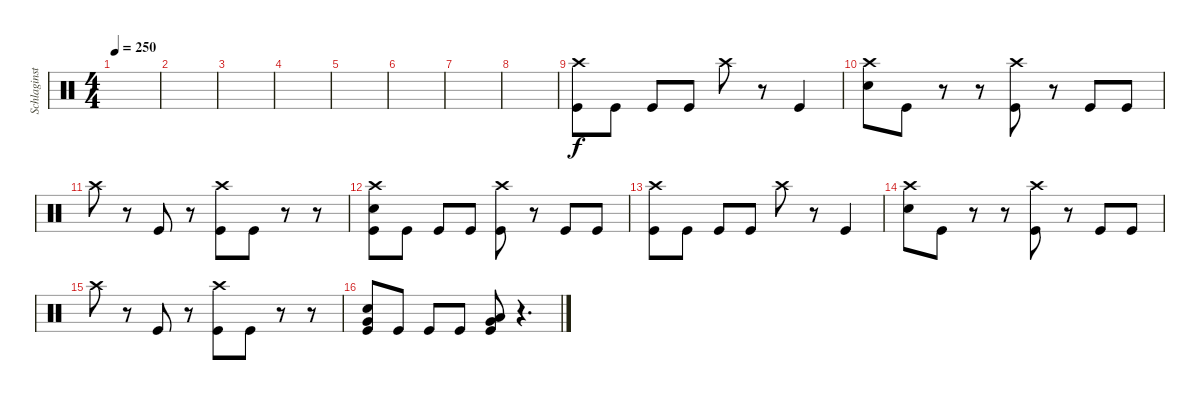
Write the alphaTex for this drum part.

\track ("Schlaginstrumente - Auswahl" "Schlaginst") {instrument percussion}
\staff {score}
\articulation defaults
\ts (4 4)
\tempo 250
\clef neutral
\ks c
|
|
|
|
|
|
|
|
("Crash high (hit)" "Kick (hit)").8{volume 2} "Kick (hit)".8{volume 13} "Kick (hit)".8 "Kick (hit)".8 "Crash high (hit)".8 r.8 "Kick (hit)".4 |
("Crash high (hit)" "Electric Snare (hit)").8 "Kick (hit)".8 r.8 r.8 ("Crash high (hit)" "Kick (hit)").8 r.8 "Kick (hit)".8 "Kick (hit)".8 |
"Crash high (hit)".8 r.8 "Kick (hit)".8 r.8 ("Crash high (hit)" "Kick (hit)").8 "Kick (hit)".8 r.8 r.8 |
("Crash high (hit)" "Electric Snare (hit)" "Kick (hit)").8 "Kick (hit)".8 "Kick (hit)".8 "Kick (hit)".8 ("Crash high (hit)" "Kick (hit)").8 r.8 "Kick (hit)".8 "Kick (hit)".8 |
("Crash high (hit)" "Kick (hit)").8 "Kick (hit)".8 "Kick (hit)".8 "Kick (hit)".8 "Crash high (hit)".8 r.8 "Kick (hit)".4 |
("Crash high (hit)" "Electric Snare (hit)").8 "Kick (hit)".8 r.8 r.8 ("Crash high (hit)" "Kick (hit)").8 r.8 "Kick (hit)".8 "Kick (hit)".8 |
"Crash high (hit)".8 r.8 "Kick (hit)".8 r.8 ("Crash high (hit)" "Kick (hit)").8 "Kick (hit)".8 r.8 r.8 |
("Very Low Tom (hit)" "Electric Snare (hit)" "Kick (hit)").8 "Kick (hit)".8 "Kick (hit)".8 "Kick (hit)".8 ("Very Low Tom (hit)" "Low Tom (hit)" "Kick (hit)").8 r.4{d}
